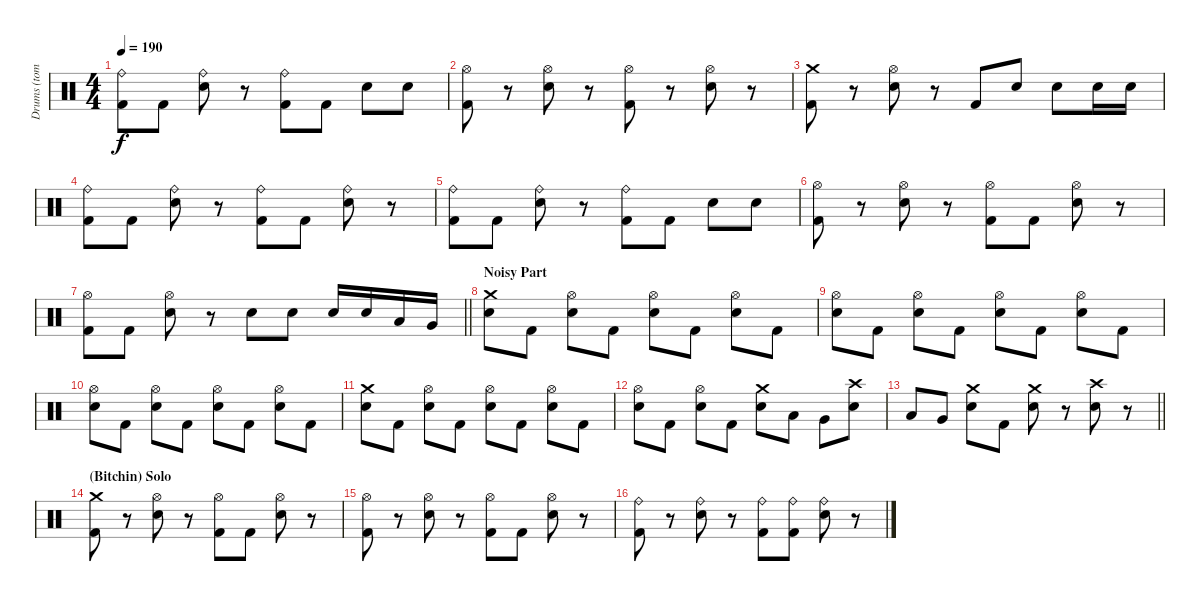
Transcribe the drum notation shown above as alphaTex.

\track ("Drums (tom)" "Drums (tom") {instrument percussion}
\staff {score}
\articulation defaults
\ts (4 4)
\tempo 190
\clef neutral
\ks c
("Ride (bell)" "Kick (hit) 2").8{dy f} "Kick (hit) 2".8 ("Ride (bell)" "Electric Snare (hit)").8 r.8 ("Ride (bell)" "Kick (hit) 2").8 "Kick (hit) 2".8 "Electric Snare (hit)".8 "Electric Snare (hit)".8 |
("Hi-Hat (open)" "Kick (hit) 2").8 r.8 ("Hi-Hat (open)" "Electric Snare (hit)").8 r.8 ("Hi-Hat (open)" "Kick (hit) 2").8 r.8 ("Hi-Hat (open)" "Electric Snare (hit)").8 r.8 |
("Crash medium (hit)" "Kick (hit) 2").8 r.8 ("Hi-Hat (open)" "Electric Snare (hit)").8 r.8 "Kick (hit) 2".8 "Electric Snare (hit)".8 "Electric Snare (hit)".8 "Electric Snare (hit)".16 "Electric Snare (hit)".16 |
("Ride (bell)" "Kick (hit) 2").8 "Kick (hit) 2".8 ("Ride (bell)" "Electric Snare (hit)").8 r.8 ("Ride (bell)" "Kick (hit) 2").8 "Kick (hit) 2".8 ("Ride (bell)" "Electric Snare (hit)").8 r.8 |
("Ride (bell)" "Kick (hit) 2").8 "Kick (hit) 2".8 ("Ride (bell)" "Electric Snare (hit)").8 r.8 ("Ride (bell)" "Kick (hit) 2").8 "Kick (hit) 2".8 "Electric Snare (hit)".8 "Electric Snare (hit)".8 |
("Hi-Hat (open)" "Kick (hit) 2").8 r.8 ("Hi-Hat (open)" "Electric Snare (hit)").8 r.8 ("Hi-Hat (open)" "Kick (hit) 2").8 "Kick (hit) 2".8 ("Hi-Hat (open)" "Electric Snare (hit)").8 r.8 |
\barLineRight lightlight
("Hi-Hat (open)" "Kick (hit) 2").8 "Kick (hit) 2".8 ("Hi-Hat (open)" "Electric Snare (hit)").8 r.8 "Electric Snare (hit)".8 "Electric Snare (hit)".8 "Electric Snare (hit)".16 "Electric Snare (hit)".16 "Low Tom (hit)".16 "Very Low Tom (hit)".16 |
\section ("" "Noisy Part")
("Crash medium (hit)" "Electric Snare (hit)").8 "Kick (hit) 2".8 ("Hi-Hat (open)" "Electric Snare (hit)").8 "Kick (hit) 2".8 ("Hi-Hat (open)" "Electric Snare (hit)").8 "Kick (hit) 2".8 ("Hi-Hat (open)" "Electric Snare (hit)").8 "Kick (hit) 2".8 |
("Hi-Hat (open)" "Electric Snare (hit)").8 "Kick (hit) 2".8 ("Hi-Hat (open)" "Electric Snare (hit)").8 "Kick (hit) 2".8 ("Hi-Hat (open)" "Electric Snare (hit)").8 "Kick (hit) 2".8 ("Hi-Hat (open)" "Electric Snare (hit)").8 "Kick (hit) 2".8 |
("Hi-Hat (open)" "Electric Snare (hit)").8 "Kick (hit) 2".8 ("Hi-Hat (open)" "Electric Snare (hit)").8 "Kick (hit) 2".8 ("Hi-Hat (open)" "Electric Snare (hit)").8 "Kick (hit) 2".8 ("Hi-Hat (open)" "Electric Snare (hit)").8 "Kick (hit) 2".8 |
("Crash medium (hit)" "Electric Snare (hit)").8 "Kick (hit) 2".8 ("Hi-Hat (open)" "Electric Snare (hit)").8 "Kick (hit) 2".8 ("Hi-Hat (open)" "Electric Snare (hit)").8 "Kick (hit) 2".8 ("Hi-Hat (open)" "Electric Snare (hit)").8 "Kick (hit) 2".8 |
("Hi-Hat (open)" "Electric Snare (hit)").8 "Kick (hit) 2".8 ("Hi-Hat (open)" "Electric Snare (hit)").8 "Kick (hit) 2".8 ("Crash medium (hit)" "Electric Snare (hit)").8 "Low Tom (hit)".8 "Very Low Tom (hit)".8 ("Crash high (hit)" "Electric Snare (hit)").8 |
\barLineRight lightlight "Low Tom (hit)".8 "Very Low Tom (hit)".8
("Electric Snare (hit)" "Crash medium (hit)").8 "Kick (hit) 2".8 ("Crash medium (hit)" "Electric Snare (hit)").8 r.8 ("Crash high (hit)" "Electric Snare (hit)").8 r.8 |
\section ("" "(Bitchin) Solo")
("Crash medium (hit)" "Kick (hit) 2").8 r.8 ("Hi-Hat (open)" "Electric Snare (hit)").8 r.8 ("Hi-Hat (open)" "Kick (hit) 2").8 "Kick (hit) 2".8 ("Hi-Hat (open)" "Electric Snare (hit)").8 r.8 |
("Hi-Hat (open)" "Kick (hit) 2").8 r.8 ("Hi-Hat (open)" "Electric Snare (hit)").8 r.8 ("Hi-Hat (open)" "Kick (hit) 2").8 "Kick (hit) 2".8 ("Hi-Hat (open)" "Electric Snare (hit)").8 r.8 |
("Ride (bell)" "Kick (hit) 2").8 r.8 ("Ride (bell)" "Electric Snare (hit)").8 r.8 ("Ride (bell)" "Kick (hit) 2").8 ("Ride (bell)" "Kick (hit) 2").8 ("Ride (bell)" "Electric Snare (hit)").8 r.8
